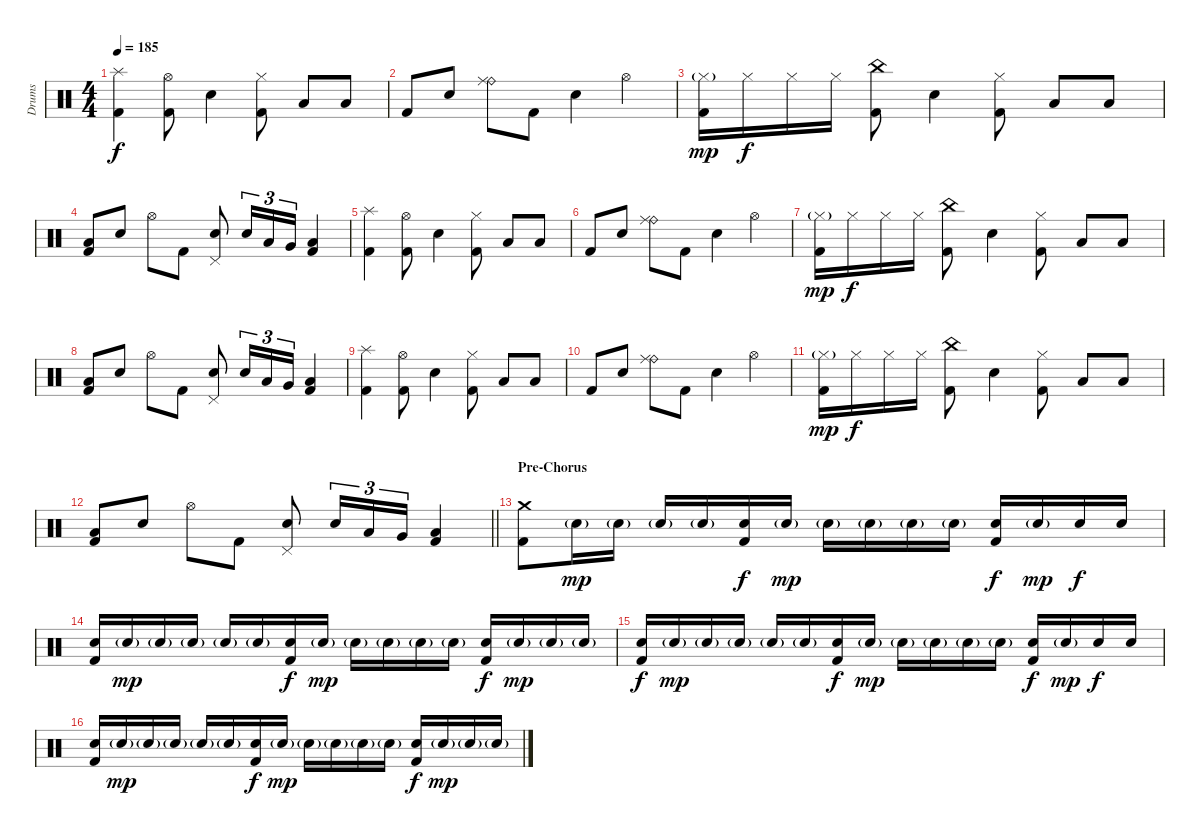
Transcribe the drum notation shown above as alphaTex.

\track ("Drums" "Drums") {instrument percussion}
\staff {score}
\articulation defaults
\ts (4 4)
\tempo 185
\clef neutral
\ks c
("Splash (hit)" "Kick (hit) 2").4{dy f} ("Hi-Hat (open)" "Kick (hit) 2").8 "Electric Snare (hit)".4 ("Hi-Hat (closed)" "Kick (hit) 2").8 "Low Tom (hit)".8 "Low Tom (hit)".8 |
"Kick (hit) 2".8 "Electric Snare (hit)".8 ("Ride (bell)" "Ride (middle)").8 "Kick (hit) 2".8 "Electric Snare (hit)".4 "Hi-Hat (open)".4 |
("Hi-Hat (closed)"{g} "Kick (hit) 2").16{dy mp} "Hi-Hat (closed)".16{dy f} "Hi-Hat (closed)".16 "Hi-Hat (closed)".16 ("China (hit)" "Kick (hit) 2").8 "Electric Snare (hit)".4 ("Hi-Hat (closed)" "Kick (hit) 2").8 "Low Tom (hit)".8 "Low Tom (hit)".8 |
("Low Floor Tom (hit)" "Kick (hit) 2").8 "Electric Snare (hit)".8 "Hi-Hat (open)".8 "Kick (hit) 2".8 ("Pedal Hi-Hat (hit)" "Electric Snare (hit)").8 "Electric Snare (hit)".16{tu (3 2)} "Low Tom (hit)".16{tu (3 2)} "Very Low Tom (hit)".16{tu (3 2)} ("Low Floor Tom (hit)" "Kick (hit) 2").4 |
("Splash (hit)" "Kick (hit) 2").4 ("Hi-Hat (open)" "Kick (hit) 2").8 "Electric Snare (hit)".4 ("Hi-Hat (closed)" "Kick (hit) 2").8 "Low Tom (hit)".8 "Low Tom (hit)".8 |
"Kick (hit) 2".8 "Electric Snare (hit)".8 ("Ride (bell)" "Ride (middle)").8 "Kick (hit) 2".8 "Electric Snare (hit)".4 "Hi-Hat (open)".4 |
("Hi-Hat (closed)"{g} "Kick (hit) 2").16{dy mp} "Hi-Hat (closed)".16{dy f} "Hi-Hat (closed)".16 "Hi-Hat (closed)".16 ("China (hit)" "Kick (hit) 2").8 "Electric Snare (hit)".4 ("Hi-Hat (closed)" "Kick (hit) 2").8 "Low Tom (hit)".8 "Low Tom (hit)".8 |
("Low Floor Tom (hit)" "Kick (hit) 2").8 "Electric Snare (hit)".8 "Hi-Hat (open)".8 "Kick (hit) 2".8 ("Pedal Hi-Hat (hit)" "Electric Snare (hit)").8 "Electric Snare (hit)".16{tu (3 2)} "Low Tom (hit)".16{tu (3 2)} "Very Low Tom (hit)".16{tu (3 2)} ("Low Floor Tom (hit)" "Kick (hit) 2").4 |
("Splash (hit)" "Kick (hit) 2").4 ("Hi-Hat (open)" "Kick (hit) 2").8 "Electric Snare (hit)".4 ("Hi-Hat (closed)" "Kick (hit) 2").8 "Low Tom (hit)".8 "Low Tom (hit)".8 |
"Kick (hit) 2".8 "Electric Snare (hit)".8 ("Ride (bell)" "Ride (middle)").8 "Kick (hit) 2".8 "Electric Snare (hit)".4 "Hi-Hat (open)".4 |
("Hi-Hat (closed)"{g} "Kick (hit) 2").16{dy mp} "Hi-Hat (closed)".16{dy f} "Hi-Hat (closed)".16 "Hi-Hat (closed)".16 ("China (hit)" "Kick (hit) 2").8 "Electric Snare (hit)".4 ("Hi-Hat (closed)" "Kick (hit) 2").8 "Low Tom (hit)".8 "Low Tom (hit)".8 |
\barLineRight lightlight
("Low Floor Tom (hit)" "Kick (hit) 2").8 "Electric Snare (hit)".8 "Hi-Hat (open)".8 "Kick (hit) 2".8 ("Pedal Hi-Hat (hit)" "Electric Snare (hit)").8 "Electric Snare (hit)".16{tu (3 2)} "Low Tom (hit)".16{tu (3 2)} "Very Low Tom (hit)".16{tu (3 2)} ("Low Floor Tom (hit)" "Kick (hit) 2").4 |
\section ("" "Pre-Chorus")
("Crash medium (hit)" "Kick (hit) 2").8 "Electric Snare (hit)"{g}.16{dy mp} "Electric Snare (hit)"{g}.16 "Electric Snare (hit)"{g}.16 "Electric Snare (hit)"{g}.16 ("Electric Snare (hit)" "Kick (hit) 2").16{dy f} "Electric Snare (hit)"{g}.16{dy mp} "Electric Snare (hit)"{g}.16 "Electric Snare (hit)"{g}.16 "Electric Snare (hit)"{g}.16 "Electric Snare (hit)"{g}.16 ("Electric Snare (hit)" "Kick (hit) 2").16{dy f} "Electric Snare (hit)"{g}.16{dy mp} "Electric Snare (hit)".16{dy f} "Electric Snare (hit)".16 |
("Electric Snare (hit)" "Kick (hit) 2").16 "Electric Snare (hit)"{g}.16{dy mp} "Electric Snare (hit)"{g}.16 "Electric Snare (hit)"{g}.16 "Electric Snare (hit)"{g}.16 "Electric Snare (hit)"{g}.16 ("Electric Snare (hit)" "Kick (hit) 2").16{dy f} "Electric Snare (hit)"{g}.16{dy mp} "Electric Snare (hit)"{g}.16 "Electric Snare (hit)"{g}.16 "Electric Snare (hit)"{g}.16 "Electric Snare (hit)"{g}.16 ("Electric Snare (hit)" "Kick (hit) 2").16{dy f} "Electric Snare (hit)"{g}.16{dy mp} "Electric Snare (hit)"{g}.16 "Electric Snare (hit)"{g}.16 |
("Electric Snare (hit)" "Kick (hit) 2").16{dy f} "Electric Snare (hit)"{g}.16{dy mp} "Electric Snare (hit)"{g}.16 "Electric Snare (hit)"{g}.16 "Electric Snare (hit)"{g}.16 "Electric Snare (hit)"{g}.16 ("Electric Snare (hit)" "Kick (hit) 2").16{dy f} "Electric Snare (hit)"{g}.16{dy mp} "Electric Snare (hit)"{g}.16 "Electric Snare (hit)"{g}.16 "Electric Snare (hit)"{g}.16 "Electric Snare (hit)"{g}.16 ("Electric Snare (hit)" "Kick (hit) 2").16{dy f} "Electric Snare (hit)"{g}.16{dy mp} "Electric Snare (hit)".16{dy f} "Electric Snare (hit)".16 |
("Electric Snare (hit)" "Kick (hit) 2").16 "Electric Snare (hit)"{g}.16{dy mp} "Electric Snare (hit)"{g}.16 "Electric Snare (hit)"{g}.16 "Electric Snare (hit)"{g}.16 "Electric Snare (hit)"{g}.16 ("Electric Snare (hit)" "Kick (hit) 2").16{dy f} "Electric Snare (hit)"{g}.16{dy mp} "Electric Snare (hit)"{g}.16 "Electric Snare (hit)"{g}.16 "Electric Snare (hit)"{g}.16 "Electric Snare (hit)"{g}.16 ("Electric Snare (hit)" "Kick (hit) 2").16{dy f} "Electric Snare (hit)"{g}.16{dy mp} "Electric Snare (hit)"{g}.16 "Electric Snare (hit)"{g}.16
